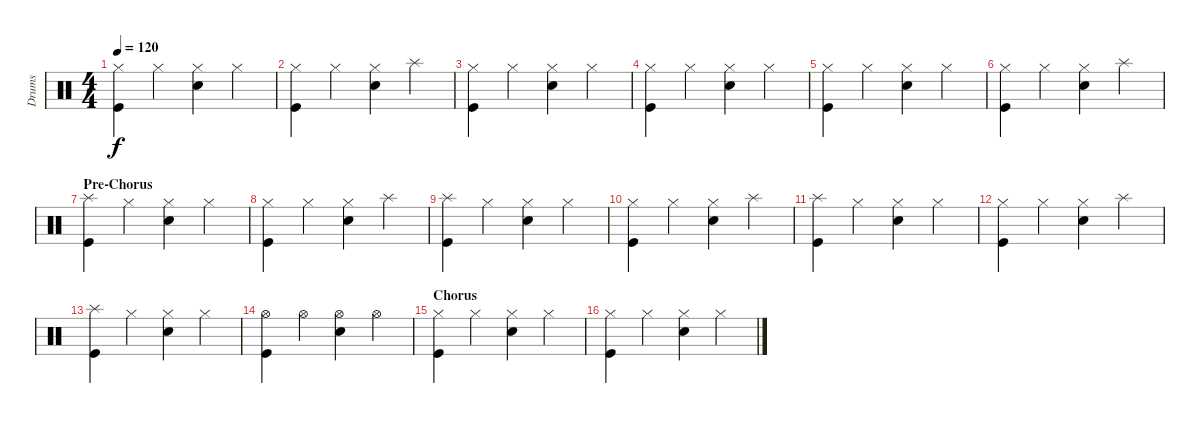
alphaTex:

\track ("Drums" "Drums") {instrument percussion}
\staff {score}
\articulation defaults
\ts (4 4)
\tempo 120
\clef neutral
\ks c
("Hi-Hat (closed)" "Kick (hit)").4{dy f} "Hi-Hat (closed)".4 ("Hi-Hat (closed)" "Snare (hit) 2").4 "Hi-Hat (closed)".4 |
("Hi-Hat (closed)" "Kick (hit)").4 "Hi-Hat (closed)".4 ("Hi-Hat (closed)" "Snare (hit) 2").4 "Splash (hit)".4 |
("Hi-Hat (closed)" "Kick (hit)").4 "Hi-Hat (closed)".4 ("Hi-Hat (closed)" "Snare (hit) 2").4 "Hi-Hat (closed)".4 |
("Hi-Hat (closed)" "Kick (hit)").4 "Hi-Hat (closed)".4 ("Hi-Hat (closed)" "Snare (hit) 2").4 "Hi-Hat (closed)".4 |
("Hi-Hat (closed)" "Kick (hit)").4 "Hi-Hat (closed)".4 ("Hi-Hat (closed)" "Snare (hit) 2").4 "Hi-Hat (closed)".4 |
("Hi-Hat (closed)" "Kick (hit)").4 "Hi-Hat (closed)".4 ("Hi-Hat (closed)" "Snare (hit) 2").4 "Splash (hit)".4 |
\section ("" "Pre-Chorus")
("Splash (hit)" "Kick (hit)").4 "Hi-Hat (closed)".4 ("Hi-Hat (closed)" "Snare (hit) 2").4 "Hi-Hat (closed)".4 |
("Hi-Hat (closed)" "Kick (hit)").4 "Hi-Hat (closed)".4 ("Hi-Hat (closed)" "Snare (hit) 2").4 "Splash (hit)".4 |
("Splash (hit)" "Kick (hit)").4 "Hi-Hat (closed)".4 ("Hi-Hat (closed)" "Snare (hit) 2").4 "Hi-Hat (closed)".4 |
("Hi-Hat (closed)" "Kick (hit)").4 "Hi-Hat (closed)".4 ("Hi-Hat (closed)" "Snare (hit) 2").4 "Splash (hit)".4 |
("Splash (hit)" "Kick (hit)").4 "Hi-Hat (closed)".4 ("Hi-Hat (closed)" "Snare (hit) 2").4 "Hi-Hat (closed)".4 |
("Hi-Hat (closed)" "Kick (hit)").4 "Hi-Hat (closed)".4 ("Hi-Hat (closed)" "Snare (hit) 2").4 "Splash (hit)".4 |
("Splash (hit)" "Kick (hit)").4 "Hi-Hat (closed)".4 ("Hi-Hat (closed)" "Snare (hit) 2").4 "Hi-Hat (closed)".4 |
("Hi-Hat (open)" "Kick (hit)").4 "Hi-Hat (open)".4 ("Hi-Hat (open)" "Snare (hit) 2").4 "Hi-Hat (open)".4 |
\section ("" "Chorus")
("Hi-Hat (closed)" "Kick (hit)").4 "Hi-Hat (closed)".4 ("Hi-Hat (closed)" "Snare (hit) 2").4 "Hi-Hat (closed)".4 |
("Hi-Hat (closed)" "Kick (hit)").4 "Hi-Hat (closed)".4 ("Hi-Hat (closed)" "Snare (hit) 2").4 "Hi-Hat (closed)".4
